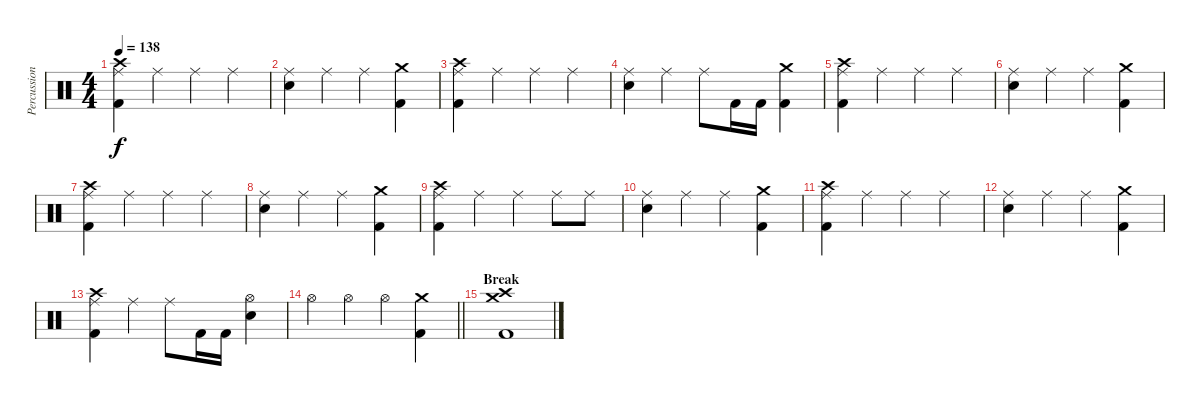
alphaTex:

\track ("Percussions" "Percussion") {instrument percussion}
\staff {score}
\articulation defaults
\ts (4 4)
\tempo 138
\clef neutral
\ks c
("Crash high (hit)" "Ride (middle)" "Kick (hit) 2").4{dy f} "Ride (middle)".4 "Ride (middle)".4 "Ride (middle)".4 |
("Ride (middle)" "Snare (hit) 2").4 "Ride (middle)".4 "Ride (middle)".4 ("Crash medium (hit)" "Kick (hit) 2").4 |
("Crash high (hit)" "Ride (middle)" "Kick (hit) 2").4 "Ride (middle)".4 "Ride (middle)".4 "Ride (middle)".4 |
("Ride (middle)" "Snare (hit) 2").4 "Ride (middle)".4 "Ride (middle)".8 "Kick (hit) 2".16 "Kick (hit) 2".16 ("Crash medium (hit)" "Kick (hit) 2").4 |
("Crash high (hit)" "Ride (middle)" "Kick (hit) 2").4 "Ride (middle)".4 "Ride (middle)".4 "Ride (middle)".4 |
("Ride (middle)" "Snare (hit) 2").4 "Ride (middle)".4 "Ride (middle)".4 ("Crash medium (hit)" "Kick (hit) 2").4 |
("Crash high (hit)" "Ride (middle)" "Kick (hit) 2").4 "Ride (middle)".4 "Ride (middle)".4 "Ride (middle)".4 |
("Ride (middle)" "Snare (hit) 2").4 "Ride (middle)".4 "Ride (middle)".4 ("Crash medium (hit)" "Kick (hit) 2").4 |
("Crash high (hit)" "Ride (middle)" "Kick (hit) 2").4 "Ride (middle)".4 "Ride (middle)".4 "Ride (middle)".8 "Ride (middle)".8 |
("Ride (middle)" "Snare (hit) 2").4 "Ride (middle)".4 "Ride (middle)".4 ("Crash medium (hit)" "Kick (hit) 2").4 |
("Crash high (hit)" "Ride (middle)" "Kick (hit) 2").4 "Ride (middle)".4 "Ride (middle)".4 "Ride (middle)".4 |
("Ride (middle)" "Snare (hit) 2").4 "Ride (middle)".4 "Ride (middle)".4 ("Crash medium (hit)" "Kick (hit) 2").4 |
("Crash high (hit)" "Ride (middle)" "Kick (hit) 2").4 "Ride (middle)".4 "Ride (middle)".8 "Kick (hit) 2".16 "Kick (hit) 2".16 ("Hi-Hat (open)" "Snare (hit) 2").4 |
\barLineRight lightlight "Hi-Hat (open)".4 "Hi-Hat (open)".4 "Hi-Hat (open)".4
("Crash medium (hit)" "Kick (hit) 2").4 |
\section ("" "Break")
("Crash high (hit)" "Crash medium (hit)" "Kick (hit) 2").1
